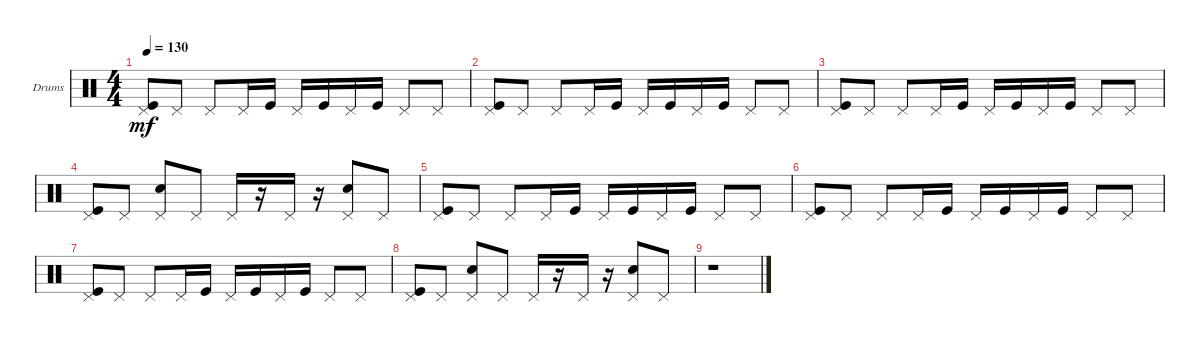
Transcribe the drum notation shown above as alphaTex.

\bracketExtendMode groupsimilarinstruments
\firstSystemTrackNameOrientation horizontal
\otherSystemsTrackNameOrientation horizontal
\track ("Drums" "Drums") {instrument percussion}
\staff {score}
\articulation defaults
\ts (4 4)
\tempo 130
\clef neutral
\ks c
("Kick (hit)" "Pedal Hi-Hat (hit)").8{dy mf} "Pedal Hi-Hat (hit)".8 "Pedal Hi-Hat (hit)".8 "Pedal Hi-Hat (hit)".16 "Kick (hit)".16 "Pedal Hi-Hat (hit)".16 "Kick (hit)".16 "Pedal Hi-Hat (hit)".16 "Kick (hit)".16 "Pedal Hi-Hat (hit)".8 "Pedal Hi-Hat (hit)".8 |
("Kick (hit)" "Pedal Hi-Hat (hit)").8 "Pedal Hi-Hat (hit)".8 "Pedal Hi-Hat (hit)".8 "Pedal Hi-Hat (hit)".16 "Kick (hit)".16 "Pedal Hi-Hat (hit)".16 "Kick (hit)".16 "Pedal Hi-Hat (hit)".16 "Kick (hit)".16 "Pedal Hi-Hat (hit)".8 "Pedal Hi-Hat (hit)".8 |
("Kick (hit)" "Pedal Hi-Hat (hit)").8 "Pedal Hi-Hat (hit)".8 "Pedal Hi-Hat (hit)".8 "Pedal Hi-Hat (hit)".16 "Kick (hit)".16 "Pedal Hi-Hat (hit)".16 "Kick (hit)".16 "Pedal Hi-Hat (hit)".16 "Kick (hit)".16 "Pedal Hi-Hat (hit)".8 "Pedal Hi-Hat (hit)".8 |
("Kick (hit)" "Pedal Hi-Hat (hit)").8 "Pedal Hi-Hat (hit)".8 ("Snare (hit) 2" "Pedal Hi-Hat (hit)").8 "Pedal Hi-Hat (hit)".8 "Pedal Hi-Hat (hit)".16 r.16 "Pedal Hi-Hat (hit)".16 r.16 ("Snare (hit) 2" "Pedal Hi-Hat (hit)").8 "Pedal Hi-Hat (hit)".8 |
("Kick (hit)" "Pedal Hi-Hat (hit)").8 "Pedal Hi-Hat (hit)".8 "Pedal Hi-Hat (hit)".8 "Pedal Hi-Hat (hit)".16 "Kick (hit)".16 "Pedal Hi-Hat (hit)".16 "Kick (hit)".16 "Pedal Hi-Hat (hit)".16 "Kick (hit)".16 "Pedal Hi-Hat (hit)".8 "Pedal Hi-Hat (hit)".8 |
("Kick (hit)" "Pedal Hi-Hat (hit)").8 "Pedal Hi-Hat (hit)".8 "Pedal Hi-Hat (hit)".8 "Pedal Hi-Hat (hit)".16 "Kick (hit)".16 "Pedal Hi-Hat (hit)".16 "Kick (hit)".16 "Pedal Hi-Hat (hit)".16 "Kick (hit)".16 "Pedal Hi-Hat (hit)".8 "Pedal Hi-Hat (hit)".8 |
("Kick (hit)" "Pedal Hi-Hat (hit)").8 "Pedal Hi-Hat (hit)".8 "Pedal Hi-Hat (hit)".8 "Pedal Hi-Hat (hit)".16 "Kick (hit)".16 "Pedal Hi-Hat (hit)".16 "Kick (hit)".16 "Pedal Hi-Hat (hit)".16 "Kick (hit)".16 "Pedal Hi-Hat (hit)".8 "Pedal Hi-Hat (hit)".8 |
("Kick (hit)" "Pedal Hi-Hat (hit)").8 "Pedal Hi-Hat (hit)".8 ("Snare (hit) 2" "Pedal Hi-Hat (hit)").8 "Pedal Hi-Hat (hit)".8 "Pedal Hi-Hat (hit)".16 r.16 "Pedal Hi-Hat (hit)".16 r.16 ("Snare (hit) 2" "Pedal Hi-Hat (hit)").8 "Pedal Hi-Hat (hit)".8 |
r.1
